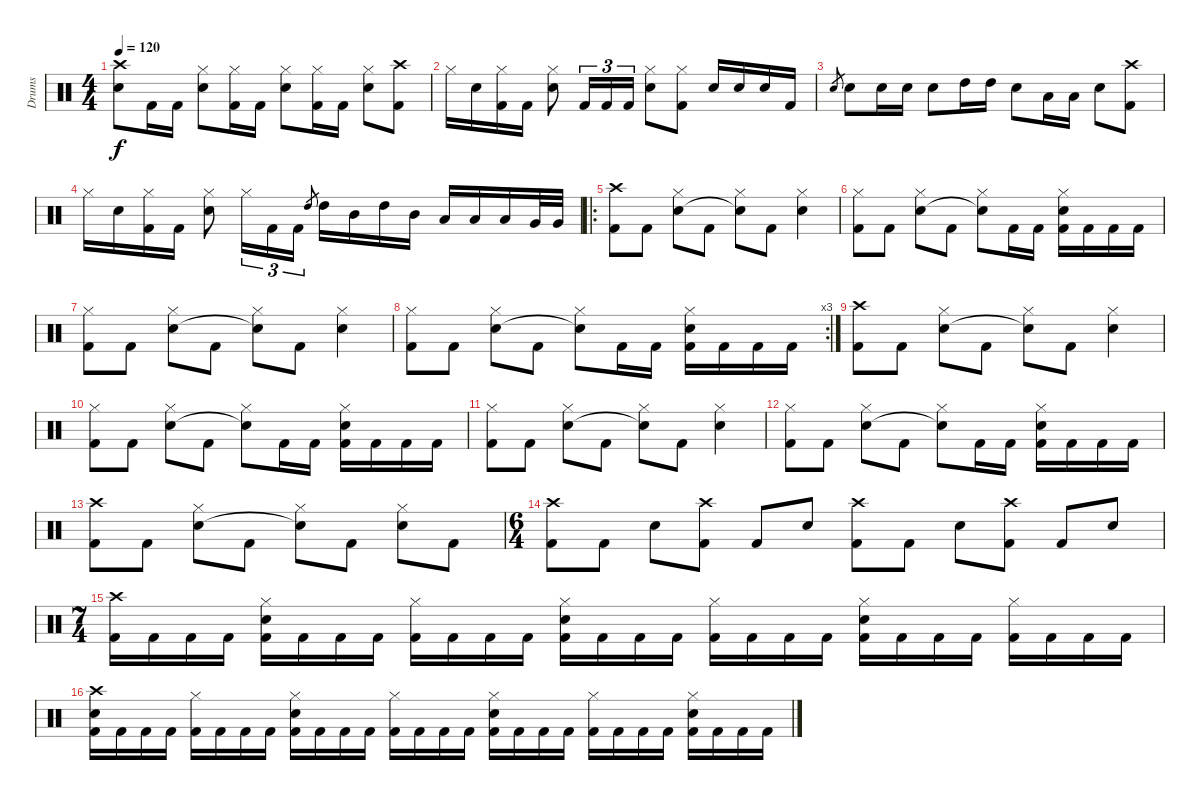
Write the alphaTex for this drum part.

\track ("Drums" "Drums") {instrument percussion}
\staff {score}
\articulation defaults
\ts (4 4)
\tempo 120
\clef neutral
\ks c
("Crash high (hit)" "Snare (hit) 2").8{dy f} "Kick (hit) 2".16 "Kick (hit) 2".16 ("Hi-Hat (closed)" "Snare (hit) 2").8 ("Hi-Hat (closed)" "Kick (hit) 2").16 "Kick (hit) 2".16 ("Hi-Hat (closed)" "Snare (hit) 2").8 ("Hi-Hat (closed)" "Kick (hit) 2").16 "Kick (hit) 2".16 ("Hi-Hat (closed)" "Snare (hit) 2").8 ("Crash high (hit)" "Kick (hit) 2").8 |
"Hi-Hat (closed)".16 "Snare (hit) 2".16 ("Hi-Hat (closed)" "Kick (hit) 2").16 "Kick (hit) 2".16 ("Hi-Hat (closed)" "Snare (hit) 2").8 "Kick (hit) 2".16{tu (3 2)} "Kick (hit) 2".16{tu (3 2)} "Kick (hit) 2".16{tu (3 2)} ("Hi-Hat (closed)" "Snare (hit) 2").8 ("Hi-Hat (closed)" "Kick (hit) 2").8 "Snare (hit) 2".16 "Snare (hit) 2".16 "Snare (hit) 2".16 "Kick (hit) 2".16 |
"Snare (hit) 2".8{gr} "Snare (hit) 2".8 "Snare (hit) 2".16 "Snare (hit) 2".16 "Snare (hit) 2".8 "High Tom (hit)".16 "High Tom (hit)".16 "Snare (hit) 2".8 "Low Tom (hit)".16 "Low Tom (hit)".16 "Snare (hit) 2".8 ("Crash high (hit)" "Kick (hit) 2").8 |
"Hi-Hat (closed)".16 "Snare (hit) 2".16 ("Hi-Hat (closed)" "Kick (hit) 2").16 "Kick (hit) 2".16 ("Hi-Hat (closed)" "Snare (hit) 2").8 "Hi-Hat (closed)".16{tu (3 2)} "Kick (hit) 2".16{tu (3 2)} "Kick (hit) 2".16{tu (3 2)} "High Tom (hit)".8{gr} "High Tom (hit)".16 "Mid Tom (hit)".16 "High Tom (hit)".16 "Mid Tom (hit)".16 "Low Tom (hit)".16 "Low Tom (hit)".16 "Low Tom (hit)".16 "Very Low Tom (hit)".32 "Very Low Tom (hit)".32 |
\ro
("Crash high (hit)" "Kick (hit) 2").8 "Kick (hit) 2".8 ("Hi-Hat (closed)" "Snare (hit) 2").8 "Kick (hit) 2".8 ("Hi-Hat (closed)" "Snare (hit)"{t}).8 "Kick (hit) 2".8 ("Hi-Hat (closed)" "Snare (hit) 2").4 |
("Hi-Hat (closed)" "Kick (hit) 2").8 "Kick (hit) 2".8 ("Hi-Hat (closed)" "Snare (hit) 2").8 "Kick (hit) 2".8 ("Hi-Hat (closed)" "Snare (hit)"{t}).8 "Kick (hit) 2".16 "Kick (hit) 2".16 ("Hi-Hat (closed)" "Snare (hit) 2" "Kick (hit) 2").16 "Kick (hit) 2".16 "Kick (hit) 2".16 "Kick (hit) 2".16 |
("Hi-Hat (closed)" "Kick (hit) 2").8 "Kick (hit) 2".8 ("Hi-Hat (closed)" "Snare (hit) 2").8 "Kick (hit) 2".8 ("Hi-Hat (closed)" "Snare (hit)"{t}).8 "Kick (hit) 2".8 ("Hi-Hat (closed)" "Snare (hit) 2").4 |
\rc 3
("Hi-Hat (closed)" "Kick (hit) 2").8 "Kick (hit) 2".8 ("Hi-Hat (closed)" "Snare (hit) 2").8 "Kick (hit) 2".8 ("Hi-Hat (closed)" "Snare (hit)"{t}).8 "Kick (hit) 2".16 "Kick (hit) 2".16 ("Hi-Hat (closed)" "Snare (hit) 2" "Kick (hit) 2").16 "Kick (hit) 2".16 "Kick (hit) 2".16 "Kick (hit) 2".16 |
("Crash high (hit)" "Kick (hit) 2").8 "Kick (hit) 2".8 ("Hi-Hat (closed)" "Snare (hit) 2").8 "Kick (hit) 2".8 ("Hi-Hat (closed)" "Snare (hit)"{t}).8 "Kick (hit) 2".8 ("Hi-Hat (closed)" "Snare (hit) 2").4 |
("Hi-Hat (closed)" "Kick (hit) 2").8 "Kick (hit) 2".8 ("Hi-Hat (closed)" "Snare (hit) 2").8 "Kick (hit) 2".8 ("Hi-Hat (closed)" "Snare (hit)"{t}).8 "Kick (hit) 2".16 "Kick (hit) 2".16 ("Hi-Hat (closed)" "Snare (hit) 2" "Kick (hit) 2").16 "Kick (hit) 2".16 "Kick (hit) 2".16 "Kick (hit) 2".16 |
("Hi-Hat (closed)" "Kick (hit) 2").8 "Kick (hit) 2".8 ("Hi-Hat (closed)" "Snare (hit) 2").8 "Kick (hit) 2".8 ("Hi-Hat (closed)" "Snare (hit)"{t}).8 "Kick (hit) 2".8 ("Hi-Hat (closed)" "Snare (hit) 2").4 |
("Hi-Hat (closed)" "Kick (hit) 2").8 "Kick (hit) 2".8 ("Hi-Hat (closed)" "Snare (hit) 2").8 "Kick (hit) 2".8 ("Hi-Hat (closed)" "Snare (hit)"{t}).8 "Kick (hit) 2".16 "Kick (hit) 2".16 ("Hi-Hat (closed)" "Snare (hit) 2" "Kick (hit) 2").16 "Kick (hit) 2".16 "Kick (hit) 2".16 "Kick (hit) 2".16 |
("Crash high (hit)" "Kick (hit) 2").8 "Kick (hit) 2".8 ("Hi-Hat (closed)" "Snare (hit) 2").8 "Kick (hit) 2".8 ("Hi-Hat (closed)" "Snare (hit)"{t}).8 "Kick (hit) 2".8 ("Hi-Hat (closed)" "Snare (hit) 2").8 "Kick (hit) 2".8 |
\ts (6 4)
("Crash high (hit)" "Kick (hit) 2").8 "Kick (hit) 2".8 "Snare (hit) 2".8 ("Crash high (hit)" "Kick (hit) 2").8 "Kick (hit) 2".8 "Snare (hit) 2".8 ("Crash high (hit)" "Kick (hit) 2").8 "Kick (hit) 2".8 "Snare (hit) 2".8 ("Crash high (hit)" "Kick (hit) 2").8 "Kick (hit) 2".8 "Snare (hit) 2".8 |
\ts (7 4)
("Crash high (hit)" "Kick (hit) 2").16 "Kick (hit) 2".16 "Kick (hit) 2".16 "Kick (hit) 2".16 ("Hi-Hat (closed)" "Snare (hit) 2" "Kick (hit) 2").16 "Kick (hit) 2".16 "Kick (hit) 2".16 "Kick (hit) 2".16 ("Hi-Hat (closed)" "Kick (hit) 2").16 "Kick (hit) 2".16 "Kick (hit) 2".16 "Kick (hit) 2".16 ("Hi-Hat (closed)" "Snare (hit) 2" "Kick (hit) 2").16 "Kick (hit) 2".16 "Kick (hit) 2".16 "Kick (hit) 2".16 ("Hi-Hat (closed)" "Kick (hit) 2").16 "Kick (hit) 2".16 "Kick (hit) 2".16 "Kick (hit) 2".16 ("Hi-Hat (closed)" "Snare (hit) 2" "Kick (hit) 2").16 "Kick (hit) 2".16 "Kick (hit) 2".16 "Kick (hit) 2".16 ("Hi-Hat (closed)" "Kick (hit) 2").16 "Kick (hit) 2".16 "Kick (hit) 2".16 "Kick (hit) 2".16 |
("Crash high (hit)" "Snare (hit) 2" "Kick (hit) 2").16 "Kick (hit) 2".16 "Kick (hit) 2".16 "Kick (hit) 2".16 ("Hi-Hat (closed)" "Kick (hit) 2").16 "Kick (hit) 2".16 "Kick (hit) 2".16 "Kick (hit) 2".16 ("Hi-Hat (closed)" "Snare (hit) 2" "Kick (hit) 2").16 "Kick (hit) 2".16 "Kick (hit) 2".16 "Kick (hit) 2".16 ("Hi-Hat (closed)" "Kick (hit) 2").16 "Kick (hit) 2".16 "Kick (hit) 2".16 "Kick (hit) 2".16 ("Hi-Hat (closed)" "Snare (hit) 2" "Kick (hit) 2").16 "Kick (hit) 2".16 "Kick (hit) 2".16 "Kick (hit) 2".16 ("Hi-Hat (closed)" "Kick (hit) 2").16 "Kick (hit) 2".16 "Kick (hit) 2".16 "Kick (hit) 2".16 ("Hi-Hat (closed)" "Snare (hit) 2" "Kick (hit) 2").16 "Kick (hit) 2".16 "Kick (hit) 2".16 "Kick (hit) 2".16
